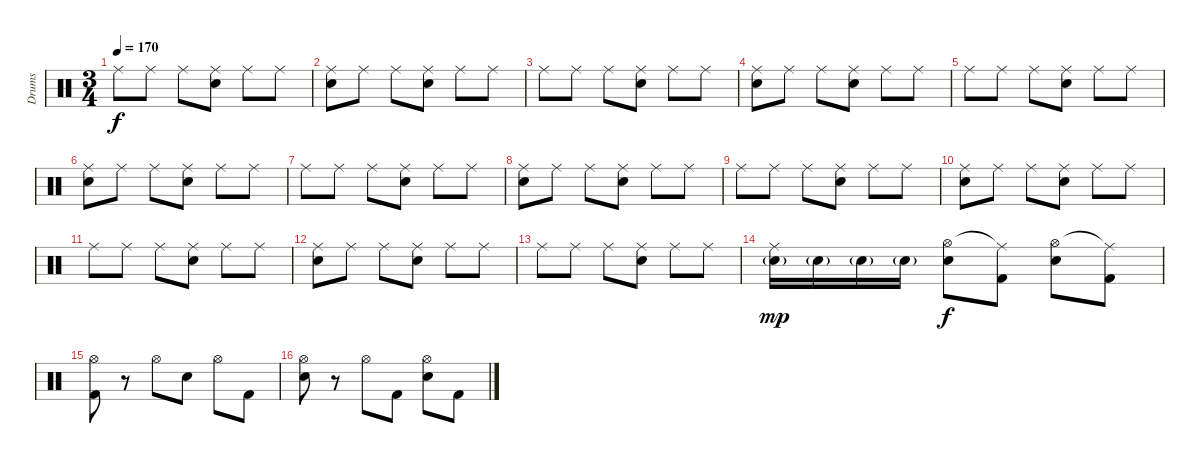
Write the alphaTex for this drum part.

\track ("Drums" "Drums") {instrument percussion}
\staff {score}
\articulation defaults
\ts (3 4)
\tempo 170
\clef neutral
\ks c "Ride (middle)".8{dy f} "Ride (middle)".8 "Ride (middle)".8
("Ride (middle)" "Snare (hit) 2").8 "Ride (middle)".8 "Ride (middle)".8 |
("Ride (middle)" "Snare (hit) 2").8 "Ride (middle)".8 "Ride (middle)".8 ("Ride (middle)" "Snare (hit) 2").8 "Ride (middle)".8 "Ride (middle)".8 |
"Ride (middle)".8 "Ride (middle)".8 "Ride (middle)".8 ("Ride (middle)" "Snare (hit) 2").8 "Ride (middle)".8 "Ride (middle)".8 |
("Ride (middle)" "Snare (hit) 2").8 "Ride (middle)".8 "Ride (middle)".8 ("Ride (middle)" "Snare (hit) 2").8 "Ride (middle)".8 "Ride (middle)".8 |
"Ride (middle)".8 "Ride (middle)".8 "Ride (middle)".8 ("Ride (middle)" "Snare (hit) 2").8 "Ride (middle)".8 "Ride (middle)".8 |
("Ride (middle)" "Snare (hit) 2").8 "Ride (middle)".8 "Ride (middle)".8 ("Ride (middle)" "Snare (hit) 2").8 "Ride (middle)".8 "Ride (middle)".8 |
"Ride (middle)".8 "Ride (middle)".8 "Ride (middle)".8 ("Ride (middle)" "Snare (hit) 2").8 "Ride (middle)".8 "Ride (middle)".8 |
("Ride (middle)" "Snare (hit) 2").8 "Ride (middle)".8 "Ride (middle)".8 ("Ride (middle)" "Snare (hit) 2").8 "Ride (middle)".8 "Ride (middle)".8 |
"Ride (middle)".8 "Ride (middle)".8 "Ride (middle)".8 ("Ride (middle)" "Snare (hit) 2").8 "Ride (middle)".8 "Ride (middle)".8 |
("Ride (middle)" "Snare (hit) 2").8 "Ride (middle)".8 "Ride (middle)".8 ("Ride (middle)" "Snare (hit) 2").8 "Ride (middle)".8 "Ride (middle)".8 |
"Ride (middle)".8 "Ride (middle)".8 "Ride (middle)".8 ("Ride (middle)" "Snare (hit) 2").8 "Ride (middle)".8 "Ride (middle)".8 |
("Ride (middle)" "Snare (hit) 2").8 "Ride (middle)".8 "Ride (middle)".8 ("Ride (middle)" "Snare (hit) 2").8 "Ride (middle)".8 "Ride (middle)".8 |
"Ride (middle)".8 "Ride (middle)".8 "Ride (middle)".8 ("Ride (middle)" "Snare (hit) 2").8 "Ride (middle)".8 "Ride (middle)".8 |
("Ride (middle)" "Snare (hit) 2"{g}).16{dy mp} "Snare (hit) 2"{g}.16 "Snare (hit) 2"{g}.16 "Snare (hit) 2"{g}.16 ("Hi-Hat (open)" "Snare (hit) 2").8{dy f} ("Ride (middle)"{t} "Kick (hit) 2").8 ("Hi-Hat (open)" "Snare (hit) 2").8 ("Ride (middle)"{t} "Kick (hit) 2").8 |
("Hi-Hat (open)" "Kick (hit) 2").8 r.8 "Hi-Hat (open)".8 "Snare (hit) 2".8 "Hi-Hat (open)".8 "Kick (hit) 2".8 |
("Hi-Hat (open)" "Snare (hit) 2").8 r.8 "Hi-Hat (open)".8 "Kick (hit) 2".8 ("Hi-Hat (open)" "Snare (hit) 2").8 "Kick (hit) 2".8
